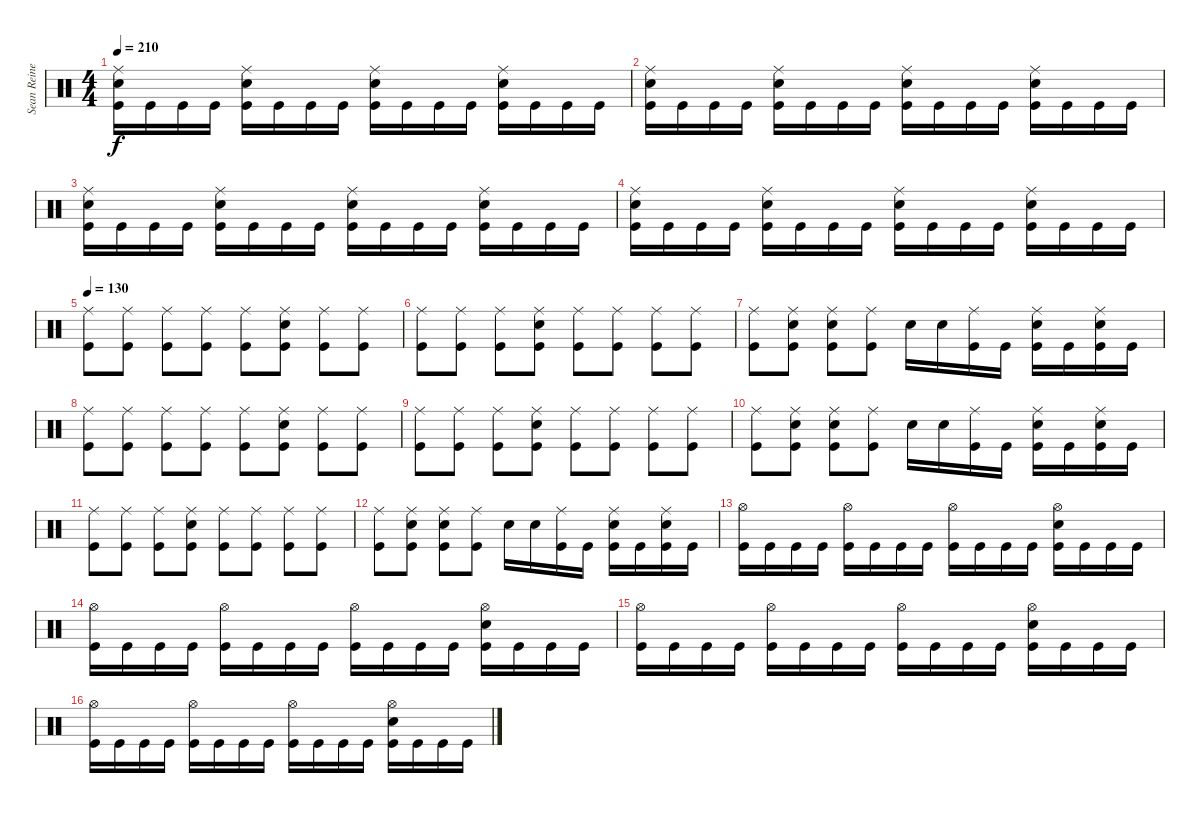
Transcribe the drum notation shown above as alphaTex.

\track ("Sean Reinert" "Sean Reine") {instrument percussion}
\staff {score}
\articulation defaults
\ts (4 4)
\tempo 210
\clef neutral
\ks c
("Ride (middle)" "Snare (hit) 2" "Kick (hit)").16{dy f} "Kick (hit)".16 "Kick (hit)".16 "Kick (hit)".16 ("Ride (middle)" "Snare (hit) 2" "Kick (hit)").16 "Kick (hit)".16 "Kick (hit)".16 "Kick (hit)".16 ("Ride (middle)" "Snare (hit) 2" "Kick (hit)").16 "Kick (hit)".16 "Kick (hit)".16 "Kick (hit)".16 ("Ride (middle)" "Snare (hit) 2" "Kick (hit)").16 "Kick (hit)".16 "Kick (hit)".16 "Kick (hit)".16 |
("Ride (middle)" "Snare (hit) 2" "Kick (hit)").16 "Kick (hit)".16 "Kick (hit)".16 "Kick (hit)".16 ("Ride (middle)" "Snare (hit) 2" "Kick (hit)").16 "Kick (hit)".16 "Kick (hit)".16 "Kick (hit)".16 ("Ride (middle)" "Snare (hit) 2" "Kick (hit)").16 "Kick (hit)".16 "Kick (hit)".16 "Kick (hit)".16 ("Ride (middle)" "Snare (hit) 2" "Kick (hit)").16 "Kick (hit)".16 "Kick (hit)".16 "Kick (hit)".16 |
("Ride (middle)" "Snare (hit) 2" "Kick (hit)").16 "Kick (hit)".16 "Kick (hit)".16 "Kick (hit)".16 ("Ride (middle)" "Snare (hit) 2" "Kick (hit)").16 "Kick (hit)".16 "Kick (hit)".16 "Kick (hit)".16 ("Ride (middle)" "Snare (hit) 2" "Kick (hit)").16 "Kick (hit)".16 "Kick (hit)".16 "Kick (hit)".16 ("Ride (middle)" "Snare (hit) 2" "Kick (hit)").16 "Kick (hit)".16 "Kick (hit)".16 "Kick (hit)".16 |
("Ride (middle)" "Snare (hit) 2" "Kick (hit)").16 "Kick (hit)".16 "Kick (hit)".16 "Kick (hit)".16 ("Ride (middle)" "Snare (hit) 2" "Kick (hit)").16 "Kick (hit)".16 "Kick (hit)".16 "Kick (hit)".16 ("Ride (middle)" "Snare (hit) 2" "Kick (hit)").16 "Kick (hit)".16 "Kick (hit)".16 "Kick (hit)".16 ("Ride (middle)" "Snare (hit) 2" "Kick (hit)").16 "Kick (hit)".16 "Kick (hit)".16 "Kick (hit)".16 |
\tempo 130
("Ride (middle)" "Kick (hit)").8 ("Ride (middle)" "Kick (hit)").8 ("Ride (middle)" "Kick (hit)").8 ("Ride (middle)" "Kick (hit)").8 ("Ride (middle)" "Kick (hit)").8 ("Ride (middle)" "Snare (hit) 2" "Kick (hit)").8 ("Ride (middle)" "Kick (hit)").8 ("Ride (middle)" "Kick (hit)").8 |
("Ride (middle)" "Kick (hit)").8 ("Ride (middle)" "Kick (hit)").8 ("Ride (middle)" "Kick (hit)").8 ("Ride (middle)" "Snare (hit) 2" "Kick (hit)").8 ("Ride (middle)" "Kick (hit)").8 ("Ride (middle)" "Kick (hit)").8 ("Ride (middle)" "Kick (hit)").8 ("Ride (middle)" "Kick (hit)").8 |
("Ride (middle)" "Kick (hit)").8 ("Ride (middle)" "Snare (hit) 2" "Kick (hit)").8 ("Ride (middle)" "Snare (hit) 2" "Kick (hit)").8 ("Ride (middle)" "Kick (hit)").8 "Snare (hit) 2".16 "Snare (hit) 2".16 ("Ride (middle)" "Kick (hit)").16 "Kick (hit)".16 ("Ride (middle)" "Snare (hit) 2" "Kick (hit)").16 "Kick (hit)".16 ("Ride (middle)" "Snare (hit) 2" "Kick (hit)").16 "Kick (hit)".16 |
("Ride (middle)" "Kick (hit)").8 ("Ride (middle)" "Kick (hit)").8 ("Ride (middle)" "Kick (hit)").8 ("Ride (middle)" "Kick (hit)").8 ("Ride (middle)" "Kick (hit)").8 ("Ride (middle)" "Snare (hit) 2" "Kick (hit)").8 ("Ride (middle)" "Kick (hit)").8 ("Ride (middle)" "Kick (hit)").8 |
("Ride (middle)" "Kick (hit)").8 ("Ride (middle)" "Kick (hit)").8 ("Ride (middle)" "Kick (hit)").8 ("Ride (middle)" "Snare (hit) 2" "Kick (hit)").8 ("Ride (middle)" "Kick (hit)").8 ("Ride (middle)" "Kick (hit)").8 ("Ride (middle)" "Kick (hit)").8 ("Ride (middle)" "Kick (hit)").8 |
("Ride (middle)" "Kick (hit)").8 ("Ride (middle)" "Snare (hit) 2" "Kick (hit)").8 ("Ride (middle)" "Snare (hit) 2" "Kick (hit)").8 ("Ride (middle)" "Kick (hit)").8 "Snare (hit) 2".16 "Snare (hit) 2".16 ("Ride (middle)" "Kick (hit)").16 "Kick (hit)".16 ("Ride (middle)" "Snare (hit) 2" "Kick (hit)").16 "Kick (hit)".16 ("Ride (middle)" "Snare (hit) 2" "Kick (hit)").16 "Kick (hit)".16 |
("Ride (middle)" "Kick (hit)").8 ("Ride (middle)" "Kick (hit)").8 ("Ride (middle)" "Kick (hit)").8 ("Ride (middle)" "Snare (hit) 2" "Kick (hit)").8 ("Ride (middle)" "Kick (hit)").8 ("Ride (middle)" "Kick (hit)").8 ("Ride (middle)" "Kick (hit)").8 ("Ride (middle)" "Kick (hit)").8 |
("Ride (middle)" "Kick (hit)").8 ("Ride (middle)" "Snare (hit) 2" "Kick (hit)").8 ("Ride (middle)" "Snare (hit) 2" "Kick (hit)").8 ("Ride (middle)" "Kick (hit)").8 "Snare (hit) 2".16 "Snare (hit) 2".16 ("Ride (middle)" "Kick (hit)").16 "Kick (hit)".16 ("Ride (middle)" "Snare (hit) 2" "Kick (hit)").16 "Kick (hit)".16 ("Ride (middle)" "Snare (hit) 2" "Kick (hit)").16 "Kick (hit)".16 |
("Hi-Hat (open)" "Kick (hit)").16 "Kick (hit)".16 "Kick (hit)".16 "Kick (hit)".16 ("Hi-Hat (open)" "Kick (hit)").16 "Kick (hit)".16 "Kick (hit)".16 "Kick (hit)".16 ("Hi-Hat (open)" "Kick (hit)").16 "Kick (hit)".16 "Kick (hit)".16 "Kick (hit)".16 ("Hi-Hat (open)" "Snare (hit) 2" "Kick (hit)").16 "Kick (hit)".16 "Kick (hit)".16 "Kick (hit)".16 |
("Hi-Hat (open)" "Kick (hit)").16 "Kick (hit)".16 "Kick (hit)".16 "Kick (hit)".16 ("Hi-Hat (open)" "Kick (hit)").16 "Kick (hit)".16 "Kick (hit)".16 "Kick (hit)".16 ("Hi-Hat (open)" "Kick (hit)").16 "Kick (hit)".16 "Kick (hit)".16 "Kick (hit)".16 ("Hi-Hat (open)" "Snare (hit) 2" "Kick (hit)").16 "Kick (hit)".16 "Kick (hit)".16 "Kick (hit)".16 |
("Hi-Hat (open)" "Kick (hit)").16 "Kick (hit)".16 "Kick (hit)".16 "Kick (hit)".16 ("Hi-Hat (open)" "Kick (hit)").16 "Kick (hit)".16 "Kick (hit)".16 "Kick (hit)".16 ("Hi-Hat (open)" "Kick (hit)").16 "Kick (hit)".16 "Kick (hit)".16 "Kick (hit)".16 ("Hi-Hat (open)" "Snare (hit) 2" "Kick (hit)").16 "Kick (hit)".16 "Kick (hit)".16 "Kick (hit)".16 |
("Hi-Hat (open)" "Kick (hit)").16 "Kick (hit)".16 "Kick (hit)".16 "Kick (hit)".16 ("Hi-Hat (open)" "Kick (hit)").16 "Kick (hit)".16 "Kick (hit)".16 "Kick (hit)".16 ("Hi-Hat (open)" "Kick (hit)").16 "Kick (hit)".16 "Kick (hit)".16 "Kick (hit)".16 ("Hi-Hat (open)" "Snare (hit) 2" "Kick (hit)").16 "Kick (hit)".16 "Kick (hit)".16 "Kick (hit)".16
